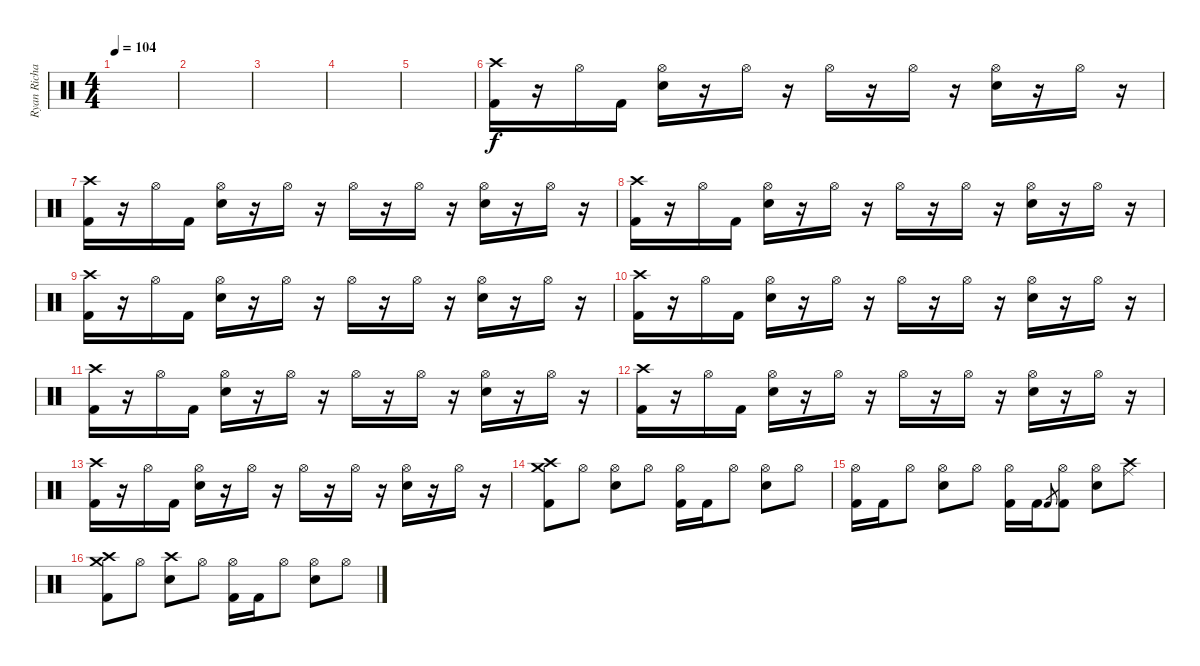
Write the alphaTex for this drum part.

\track ("Ryan Richards" "Ryan Richa") {instrument percussion}
\staff {score}
\articulation defaults
\ts (4 4)
\tempo 104
\clef neutral
\ks c
|
|
|
|
|
("Crash high (hit)" "Kick (hit) 2").16 r.16 "Hi-Hat (open)".16 "Kick (hit) 2".16 ("Hi-Hat (open)" "Snare (hit) 2").16 r.16 "Hi-Hat (open)".16 r.16 "Hi-Hat (open)".16 r.16 "Hi-Hat (open)".16 r.16 ("Hi-Hat (open)" "Snare (hit) 2").16 r.16 "Hi-Hat (open)".16 r.16 |
("Crash high (hit)" "Kick (hit) 2").16 r.16 "Hi-Hat (open)".16 "Kick (hit) 2".16 ("Hi-Hat (open)" "Snare (hit) 2").16 r.16 "Hi-Hat (open)".16 r.16 "Hi-Hat (open)".16 r.16 "Hi-Hat (open)".16 r.16 ("Hi-Hat (open)" "Snare (hit) 2").16 r.16 "Hi-Hat (open)".16 r.16 |
("Crash high (hit)" "Kick (hit) 2").16 r.16 "Hi-Hat (open)".16 "Kick (hit) 2".16 ("Hi-Hat (open)" "Snare (hit) 2").16 r.16 "Hi-Hat (open)".16 r.16 "Hi-Hat (open)".16 r.16 "Hi-Hat (open)".16 r.16 ("Hi-Hat (open)" "Snare (hit) 2").16 r.16 "Hi-Hat (open)".16 r.16 |
("Crash high (hit)" "Kick (hit) 2").16 r.16 "Hi-Hat (open)".16 "Kick (hit) 2".16 ("Hi-Hat (open)" "Snare (hit) 2").16 r.16 "Hi-Hat (open)".16 r.16 "Hi-Hat (open)".16 r.16 "Hi-Hat (open)".16 r.16 ("Hi-Hat (open)" "Snare (hit) 2").16 r.16 "Hi-Hat (open)".16 r.16 |
("Crash high (hit)" "Kick (hit) 2").16 r.16 "Hi-Hat (open)".16 "Kick (hit) 2".16 ("Hi-Hat (open)" "Snare (hit) 2").16 r.16 "Hi-Hat (open)".16 r.16 "Hi-Hat (open)".16 r.16 "Hi-Hat (open)".16 r.16 ("Hi-Hat (open)" "Snare (hit) 2").16 r.16 "Hi-Hat (open)".16 r.16 |
("Crash high (hit)" "Kick (hit) 2").16 r.16 "Hi-Hat (open)".16 "Kick (hit) 2".16 ("Hi-Hat (open)" "Snare (hit) 2").16 r.16 "Hi-Hat (open)".16 r.16 "Hi-Hat (open)".16 r.16 "Hi-Hat (open)".16 r.16 ("Hi-Hat (open)" "Snare (hit) 2").16 r.16 "Hi-Hat (open)".16 r.16 |
("Crash high (hit)" "Kick (hit) 2").16 r.16 "Hi-Hat (open)".16 "Kick (hit) 2".16 ("Hi-Hat (open)" "Snare (hit) 2").16 r.16 "Hi-Hat (open)".16 r.16 "Hi-Hat (open)".16 r.16 "Hi-Hat (open)".16 r.16 ("Hi-Hat (open)" "Snare (hit) 2").16 r.16 "Hi-Hat (open)".16 r.16 |
("Crash high (hit)" "Kick (hit) 2").16 r.16 "Hi-Hat (open)".16 "Kick (hit) 2".16 ("Hi-Hat (open)" "Snare (hit) 2").16 r.16 "Hi-Hat (open)".16 r.16 "Hi-Hat (open)".16 r.16 "Hi-Hat (open)".16 r.16 ("Hi-Hat (open)" "Snare (hit) 2").16 r.16 "Hi-Hat (open)".16 r.16 |
("Crash high (hit)" "Crash medium (hit)" "Kick (hit) 2").8 "Hi-Hat (open)".8 ("Hi-Hat (open)" "Snare (hit) 2").8 "Hi-Hat (open)".8 ("Hi-Hat (open)" "Kick (hit) 2").16 "Kick (hit) 2".16 "Hi-Hat (open)".8 ("Hi-Hat (open)" "Snare (hit) 2").8 "Hi-Hat (open)".8 |
("Hi-Hat (open)" "Kick (hit) 2").16 "Kick (hit) 2".16 "Hi-Hat (open)".8 ("Hi-Hat (open)" "Snare (hit) 2").8 "Hi-Hat (open)".8 ("Hi-Hat (open)" "Kick (hit) 2").16 "Kick (hit) 2".16 "Kick (hit) 2".8{gr} ("Hi-Hat (open)" "Kick (hit) 2").8 ("Hi-Hat (open)" "Snare (hit) 2").8 ("Crash high (hit)" "Ride (middle)").8 |
("Crash high (hit)" "Crash medium (hit)" "Kick (hit) 2").8 "Hi-Hat (open)".8 ("Crash high (hit)" "Snare (hit) 2").8 "Hi-Hat (open)".8 ("Hi-Hat (open)" "Kick (hit) 2").16 "Kick (hit) 2".16 "Hi-Hat (open)".8 ("Hi-Hat (open)" "Snare (hit) 2").8 "Hi-Hat (open)".8
